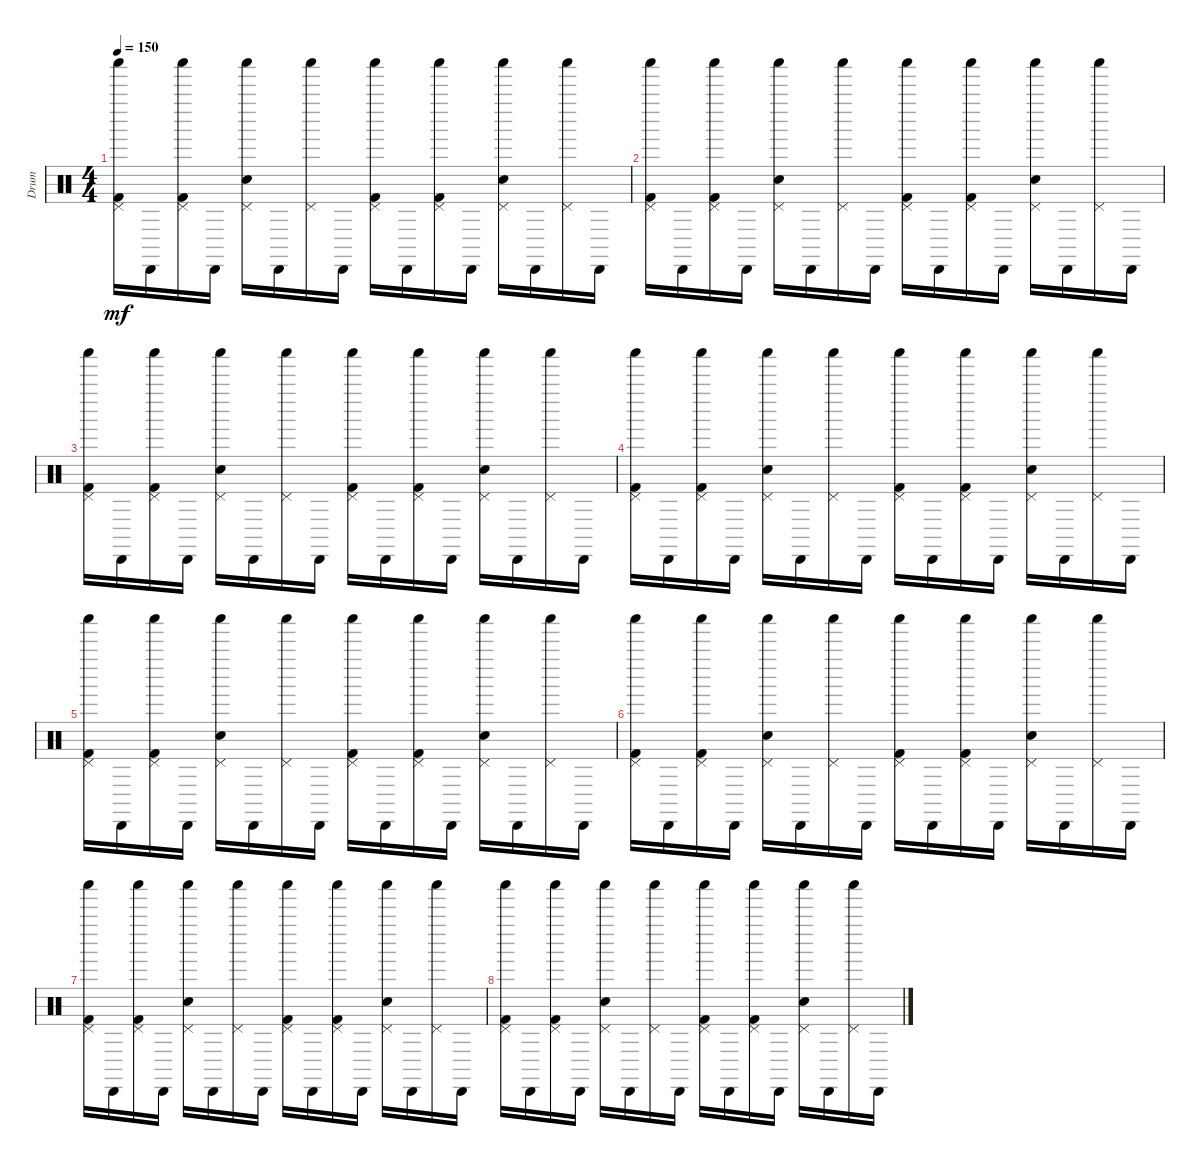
\track ("Drum" "Drum") {instrument percussion}
\staff {score}
\articulation defaults
\ts (4 4)
\tempo 150
\clef neutral
\ks c
("Shaker (hit)" "Pedal Hi-Hat (hit)" "Kick (hit) 2").16{dy mf} "Cabasa (hit)".16 ("Pedal Hi-Hat (hit)" "Kick (hit) 2" "Shaker (hit)").16 "Cabasa (hit)".16 ("Shaker (hit)" "Pedal Hi-Hat (hit)" "Snare (hit) 2").16 "Cabasa (hit)".16 ("Pedal Hi-Hat (hit)" "Shaker (hit)").16 "Cabasa (hit)".16 ("Shaker (hit)" "Pedal Hi-Hat (hit)" "Kick (hit) 2").16 "Cabasa (hit)".16 ("Pedal Hi-Hat (hit)" "Kick (hit) 2" "Shaker (hit)").16 "Cabasa (hit)".16 ("Shaker (hit)" "Pedal Hi-Hat (hit)" "Snare (hit) 2").16 "Cabasa (hit)".16 ("Pedal Hi-Hat (hit)" "Shaker (hit)").16 "Cabasa (hit)".16 |
("Shaker (hit)" "Pedal Hi-Hat (hit)" "Kick (hit) 2").16 "Cabasa (hit)".16 ("Pedal Hi-Hat (hit)" "Kick (hit) 2" "Shaker (hit)").16 "Cabasa (hit)".16 ("Shaker (hit)" "Pedal Hi-Hat (hit)" "Snare (hit) 2").16 "Cabasa (hit)".16 ("Pedal Hi-Hat (hit)" "Shaker (hit)").16 "Cabasa (hit)".16 ("Shaker (hit)" "Pedal Hi-Hat (hit)" "Kick (hit) 2").16 "Cabasa (hit)".16 ("Pedal Hi-Hat (hit)" "Kick (hit) 2" "Shaker (hit)").16 "Cabasa (hit)".16 ("Shaker (hit)" "Pedal Hi-Hat (hit)" "Snare (hit) 2").16 "Cabasa (hit)".16 ("Pedal Hi-Hat (hit)" "Shaker (hit)").16 "Cabasa (hit)".16 |
("Shaker (hit)" "Pedal Hi-Hat (hit)" "Kick (hit) 2").16 "Cabasa (hit)".16 ("Pedal Hi-Hat (hit)" "Kick (hit) 2" "Shaker (hit)").16 "Cabasa (hit)".16 ("Shaker (hit)" "Pedal Hi-Hat (hit)" "Snare (hit) 2").16 "Cabasa (hit)".16 ("Pedal Hi-Hat (hit)" "Shaker (hit)").16 "Cabasa (hit)".16 ("Shaker (hit)" "Pedal Hi-Hat (hit)" "Kick (hit) 2").16 "Cabasa (hit)".16 ("Pedal Hi-Hat (hit)" "Kick (hit) 2" "Shaker (hit)").16 "Cabasa (hit)".16 ("Shaker (hit)" "Pedal Hi-Hat (hit)" "Snare (hit) 2").16 "Cabasa (hit)".16 ("Pedal Hi-Hat (hit)" "Shaker (hit)").16 "Cabasa (hit)".16 |
("Shaker (hit)" "Pedal Hi-Hat (hit)" "Kick (hit) 2").16 "Cabasa (hit)".16 ("Pedal Hi-Hat (hit)" "Kick (hit) 2" "Shaker (hit)").16 "Cabasa (hit)".16 ("Shaker (hit)" "Pedal Hi-Hat (hit)" "Snare (hit) 2").16 "Cabasa (hit)".16 ("Pedal Hi-Hat (hit)" "Shaker (hit)").16 "Cabasa (hit)".16 ("Shaker (hit)" "Pedal Hi-Hat (hit)" "Kick (hit) 2").16 "Cabasa (hit)".16 ("Pedal Hi-Hat (hit)" "Kick (hit) 2" "Shaker (hit)").16 "Cabasa (hit)".16 ("Shaker (hit)" "Pedal Hi-Hat (hit)" "Snare (hit) 2").16 "Cabasa (hit)".16 ("Pedal Hi-Hat (hit)" "Shaker (hit)").16 "Cabasa (hit)".16 |
("Shaker (hit)" "Pedal Hi-Hat (hit)" "Kick (hit) 2").16 "Cabasa (hit)".16 ("Pedal Hi-Hat (hit)" "Kick (hit) 2" "Shaker (hit)").16 "Cabasa (hit)".16 ("Shaker (hit)" "Pedal Hi-Hat (hit)" "Snare (hit) 2").16 "Cabasa (hit)".16 ("Pedal Hi-Hat (hit)" "Shaker (hit)").16 "Cabasa (hit)".16 ("Shaker (hit)" "Pedal Hi-Hat (hit)" "Kick (hit) 2").16 "Cabasa (hit)".16 ("Pedal Hi-Hat (hit)" "Kick (hit) 2" "Shaker (hit)").16 "Cabasa (hit)".16 ("Shaker (hit)" "Pedal Hi-Hat (hit)" "Snare (hit) 2").16 "Cabasa (hit)".16 ("Pedal Hi-Hat (hit)" "Shaker (hit)").16 "Cabasa (hit)".16 |
("Shaker (hit)" "Pedal Hi-Hat (hit)" "Kick (hit) 2").16 "Cabasa (hit)".16 ("Pedal Hi-Hat (hit)" "Kick (hit) 2" "Shaker (hit)").16 "Cabasa (hit)".16 ("Shaker (hit)" "Pedal Hi-Hat (hit)" "Snare (hit) 2").16 "Cabasa (hit)".16 ("Pedal Hi-Hat (hit)" "Shaker (hit)").16 "Cabasa (hit)".16 ("Shaker (hit)" "Pedal Hi-Hat (hit)" "Kick (hit) 2").16 "Cabasa (hit)".16 ("Pedal Hi-Hat (hit)" "Kick (hit) 2" "Shaker (hit)").16 "Cabasa (hit)".16 ("Shaker (hit)" "Pedal Hi-Hat (hit)" "Snare (hit) 2").16 "Cabasa (hit)".16 ("Pedal Hi-Hat (hit)" "Shaker (hit)").16 "Cabasa (hit)".16 |
("Shaker (hit)" "Pedal Hi-Hat (hit)" "Kick (hit) 2").16 "Cabasa (hit)".16 ("Pedal Hi-Hat (hit)" "Kick (hit) 2" "Shaker (hit)").16 "Cabasa (hit)".16 ("Shaker (hit)" "Pedal Hi-Hat (hit)" "Snare (hit) 2").16 "Cabasa (hit)".16 ("Pedal Hi-Hat (hit)" "Shaker (hit)").16 "Cabasa (hit)".16 ("Shaker (hit)" "Pedal Hi-Hat (hit)" "Kick (hit) 2").16 "Cabasa (hit)".16 ("Pedal Hi-Hat (hit)" "Kick (hit) 2" "Shaker (hit)").16 "Cabasa (hit)".16 ("Shaker (hit)" "Pedal Hi-Hat (hit)" "Snare (hit) 2").16 "Cabasa (hit)".16 ("Pedal Hi-Hat (hit)" "Shaker (hit)").16 "Cabasa (hit)".16 |
("Shaker (hit)" "Pedal Hi-Hat (hit)" "Kick (hit) 2").16 "Cabasa (hit)".16 ("Pedal Hi-Hat (hit)" "Kick (hit) 2" "Shaker (hit)").16 "Cabasa (hit)".16 ("Shaker (hit)" "Pedal Hi-Hat (hit)" "Snare (hit) 2").16 "Cabasa (hit)".16 ("Pedal Hi-Hat (hit)" "Shaker (hit)").16 "Cabasa (hit)".16 ("Shaker (hit)" "Pedal Hi-Hat (hit)" "Kick (hit) 2").16 "Cabasa (hit)".16 ("Pedal Hi-Hat (hit)" "Kick (hit) 2" "Shaker (hit)").16 "Cabasa (hit)".16 ("Shaker (hit)" "Pedal Hi-Hat (hit)" "Snare (hit) 2").16 "Cabasa (hit)".16 ("Pedal Hi-Hat (hit)" "Shaker (hit)").16 "Cabasa (hit)".16
